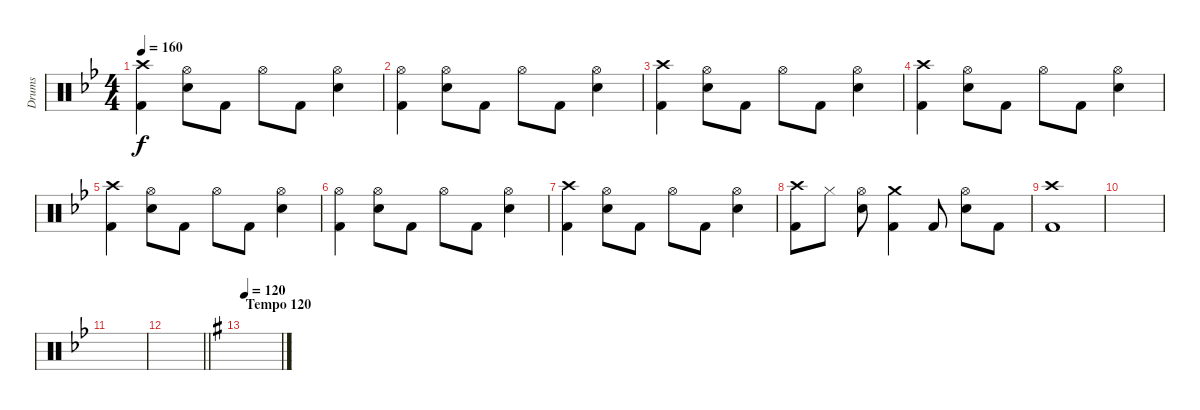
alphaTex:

\track ("Drums" "Drums") {instrument percussion}
\staff {score}
\articulation defaults
\ts (4 4)
\tempo 160
\clef neutral
\ks bb
("Crash high (hit)" "Kick (hit) 2").4{dy f} ("Hi-Hat (open)" "Snare (hit) 2").8 "Kick (hit) 2".8 "Hi-Hat (open)".8 "Kick (hit) 2".8 ("Hi-Hat (open)" "Snare (hit) 2").4 |
("Hi-Hat (open)" "Kick (hit) 2").4 ("Hi-Hat (open)" "Snare (hit) 2").8 "Kick (hit) 2".8 "Hi-Hat (open)".8 "Kick (hit) 2".8 ("Hi-Hat (open)" "Snare (hit) 2").4 |
("Crash high (hit)" "Kick (hit) 2").4 ("Hi-Hat (open)" "Snare (hit) 2").8 "Kick (hit) 2".8 "Hi-Hat (open)".8 "Kick (hit) 2".8 ("Hi-Hat (open)" "Snare (hit) 2").4 |
("Crash high (hit)" "Kick (hit) 2").4 ("Hi-Hat (open)" "Snare (hit) 2").8 "Kick (hit) 2".8 "Hi-Hat (open)".8 "Kick (hit) 2".8 ("Hi-Hat (open)" "Snare (hit) 2").4 |
("Crash high (hit)" "Kick (hit) 2").4 ("Hi-Hat (open)" "Snare (hit) 2").8 "Kick (hit) 2".8 "Hi-Hat (open)".8 "Kick (hit) 2".8 ("Hi-Hat (open)" "Snare (hit) 2").4 |
("Hi-Hat (open)" "Kick (hit) 2").4 ("Hi-Hat (open)" "Snare (hit) 2").8 "Kick (hit) 2".8 "Hi-Hat (open)".8 "Kick (hit) 2".8 ("Hi-Hat (open)" "Snare (hit) 2").4 |
("Crash high (hit)" "Kick (hit) 2").4 ("Hi-Hat (open)" "Snare (hit) 2").8 "Kick (hit) 2".8 "Hi-Hat (open)".8 "Kick (hit) 2".8 ("Hi-Hat (open)" "Snare (hit) 2").4 |
("Crash high (hit)" "Kick (hit) 2").8 "Hi-Hat (closed)".8 ("Hi-Hat (open)" "Snare (hit) 2").8 ("Crash medium (hit)" "Kick (hit) 2").4 "Kick (hit) 2".8 ("Hi-Hat (open)" "Snare (hit) 2").8 "Kick (hit) 2".8 |
("Crash high (hit)" "Kick (hit) 2").1 |
|
|
\barLineRight lightlight
|
\section ("" "Tempo 120")
\tempo 120
\ks g
